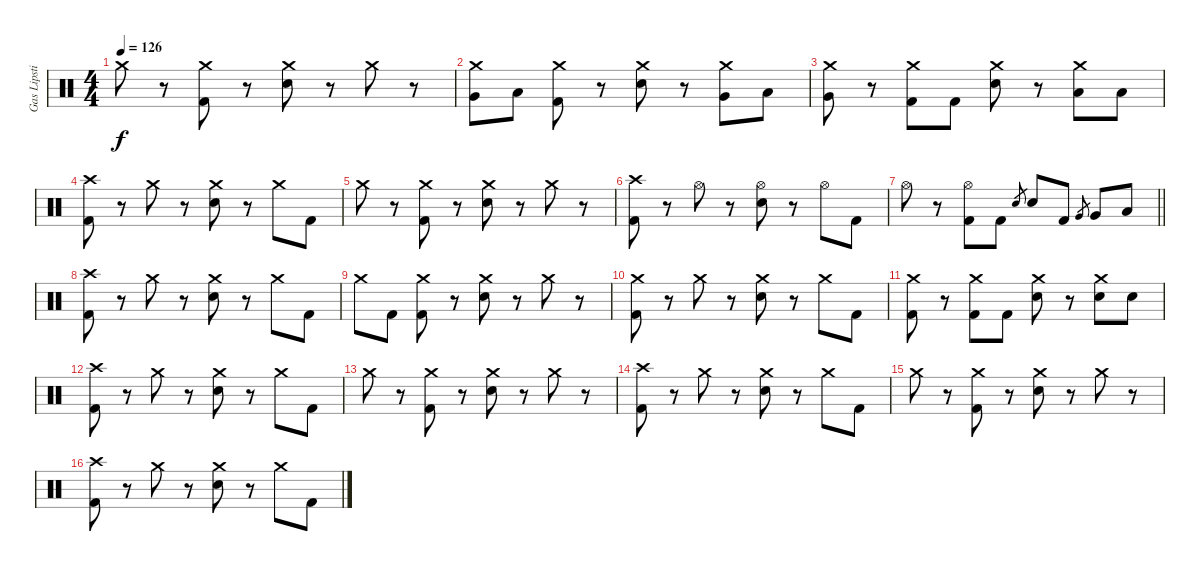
\track ("Gas Lipstick (Drums)" "Gas Lipsti") {instrument percussion}
\staff {score}
\articulation defaults
\ts (4 4)
\tempo 126
\clef neutral
\ks c "Crash medium (hit)".8{dy f}
r.8 ("Crash medium (hit)" "Kick (hit) 2").8 r.8 ("Crash medium (hit)" "Snare (hit) 2").8 r.8 "Crash medium (hit)".8 r.8 |
("Crash medium (hit)" "Very Low Tom (hit)").8 "Low Floor Tom (hit)".8 ("Crash medium (hit)" "Kick (hit) 2").8 r.8 ("Crash medium (hit)" "Snare (hit) 2").8 r.8 ("Crash medium (hit)" "Very Low Tom (hit)").8 "Low Floor Tom (hit)".8 |
("Crash medium (hit)" "Very Low Tom (hit)").8 r.8 ("Crash medium (hit)" "Kick (hit) 2").8 "Kick (hit) 2".8 ("Crash medium (hit)" "Snare (hit) 2").8 r.8 ("Crash medium (hit)" "Low Floor Tom (hit)").8 "Low Floor Tom (hit)".8 |
("Crash high (hit)" "Kick (hit) 2").8 r.8 "Crash medium (hit)".8 r.8 ("Crash medium (hit)" "Snare (hit) 2").8 r.8 "Crash medium (hit)".8 "Kick (hit) 2".8 |
"Crash medium (hit)".8 r.8 ("Crash medium (hit)" "Kick (hit) 2").8 r.8 ("Crash medium (hit)" "Snare (hit) 2").8 r.8 "Crash medium (hit)".8 r.8 |
("Crash high (hit)" "Kick (hit) 2").8 r.8 "Hi-Hat (open)".8 r.8 ("Hi-Hat (open)" "Snare (hit) 2").8 r.8 "Hi-Hat (open)".8 "Kick (hit) 2".8 |
\barLineRight lightlight "Hi-Hat (open)".8
r.8 ("Hi-Hat (open)" "Kick (hit) 2").8 "Kick (hit) 2".8 "Snare (hit) 2".8{gr} "Snare (hit) 2".8 "Kick (hit) 2".8 "Very Low Tom (hit)".8{gr} "Very Low Tom (hit)".8 "Low Floor Tom (hit)".8 |
("Crash high (hit)" "Kick (hit) 2").8 r.8 "Crash medium (hit)".8 r.8 ("Crash medium (hit)" "Snare (hit) 2").8 r.8 "Crash medium (hit)".8 "Kick (hit) 2".8 |
"Crash medium (hit)".8 "Kick (hit) 2".8 ("Crash medium (hit)" "Kick (hit) 2").8 r.8 ("Crash medium (hit)" "Snare (hit) 2").8 r.8 "Crash medium (hit)".8 r.8 |
("Crash medium (hit)" "Kick (hit) 2").8 r.8 "Crash medium (hit)".8 r.8 ("Crash medium (hit)" "Snare (hit) 2").8 r.8 "Crash medium (hit)".8 "Kick (hit) 2".8 |
("Crash medium (hit)" "Kick (hit) 2").8 r.8 ("Crash medium (hit)" "Kick (hit) 2").8 "Kick (hit) 2".8 ("Crash medium (hit)" "Snare (hit) 2").8 r.8 ("Crash medium (hit)" "Snare (hit) 2").8 "Snare (hit) 2".8 |
("Crash high (hit)" "Kick (hit) 2").8 r.8 "Crash medium (hit)".8 r.8 ("Crash medium (hit)" "Snare (hit) 2").8 r.8 "Crash medium (hit)".8 "Kick (hit) 2".8 |
"Crash medium (hit)".8 r.8 ("Crash medium (hit)" "Kick (hit) 2").8 r.8 ("Crash medium (hit)" "Snare (hit) 2").8 r.8 "Crash medium (hit)".8 r.8 |
("Crash high (hit)" "Kick (hit) 2").8 r.8 "Crash medium (hit)".8 r.8 ("Crash medium (hit)" "Snare (hit) 2").8 r.8 "Crash medium (hit)".8 "Kick (hit) 2".8 |
"Crash medium (hit)".8 r.8 ("Crash medium (hit)" "Kick (hit) 2").8 r.8 ("Crash medium (hit)" "Snare (hit) 2").8 r.8 "Crash medium (hit)".8 r.8 |
("Crash high (hit)" "Kick (hit) 2").8 r.8 "Crash medium (hit)".8 r.8 ("Crash medium (hit)" "Snare (hit) 2").8 r.8 "Crash medium (hit)".8 "Kick (hit) 2".8
